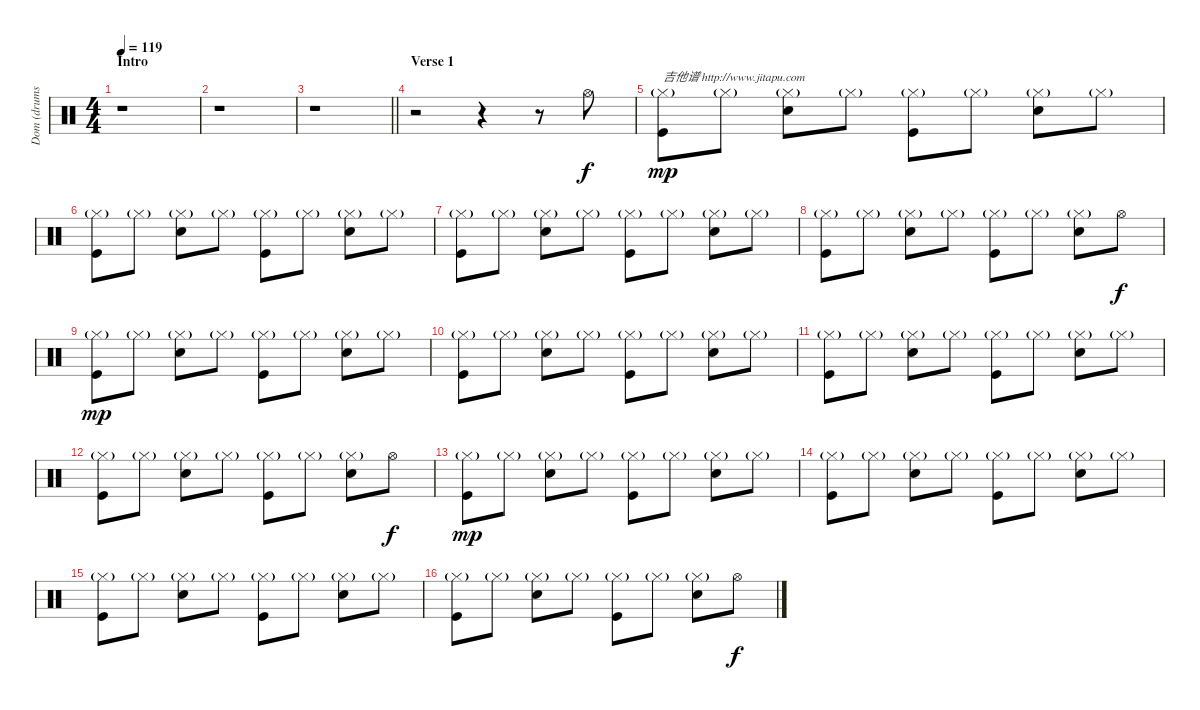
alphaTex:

\track ("Dom (drums)" "Dom (drums") {instrument percussion}
\staff {score}
\articulation defaults
\ts (4 4)
\section ("" "Intro")
\tempo 119
\clef neutral
\ks c
r.1{dy f} |
r.1 |
\barLineRight lightlight
r.1 |
\section ("" "Verse 1")
r.2 r.4 r.8 "Hi-Hat (open)".8 |
("Hi-Hat (closed)"{g} "Kick (hit)").8{txt "吉他谱 http://www.jitapu.com" dy mp} "Hi-Hat (closed)"{g}.8 ("Hi-Hat (closed)"{g} "Snare (hit) 2").8 "Hi-Hat (closed)"{g}.8 ("Hi-Hat (closed)"{g} "Kick (hit)").8 "Hi-Hat (closed)"{g}.8 ("Hi-Hat (closed)"{g} "Snare (hit) 2").8 "Hi-Hat (closed)"{g}.8 |
("Hi-Hat (closed)"{g} "Kick (hit)").8 "Hi-Hat (closed)"{g}.8 ("Hi-Hat (closed)"{g} "Snare (hit) 2").8 "Hi-Hat (closed)"{g}.8 ("Hi-Hat (closed)"{g} "Kick (hit)").8 "Hi-Hat (closed)"{g}.8 ("Hi-Hat (closed)"{g} "Snare (hit) 2").8 "Hi-Hat (closed)"{g}.8 |
("Hi-Hat (closed)"{g} "Kick (hit)").8 "Hi-Hat (closed)"{g}.8 ("Hi-Hat (closed)"{g} "Snare (hit) 2").8 "Hi-Hat (closed)"{g}.8 ("Hi-Hat (closed)"{g} "Kick (hit)").8 "Hi-Hat (closed)"{g}.8 ("Hi-Hat (closed)"{g} "Snare (hit) 2").8 "Hi-Hat (closed)"{g}.8 |
("Hi-Hat (closed)"{g} "Kick (hit)").8 "Hi-Hat (closed)"{g}.8 ("Hi-Hat (closed)"{g} "Snare (hit) 2").8 "Hi-Hat (closed)"{g}.8 ("Hi-Hat (closed)"{g} "Kick (hit)").8 "Hi-Hat (closed)"{g}.8 ("Hi-Hat (closed)"{g} "Snare (hit) 2").8 "Hi-Hat (open)".8{dy f} |
("Hi-Hat (closed)"{g} "Kick (hit)").8{dy mp} "Hi-Hat (closed)"{g}.8 ("Hi-Hat (closed)"{g} "Snare (hit) 2").8 "Hi-Hat (closed)"{g}.8 ("Hi-Hat (closed)"{g} "Kick (hit)").8 "Hi-Hat (closed)"{g}.8 ("Hi-Hat (closed)"{g} "Snare (hit) 2").8 "Hi-Hat (closed)"{g}.8 |
("Hi-Hat (closed)"{g} "Kick (hit)").8 "Hi-Hat (closed)"{g}.8 ("Hi-Hat (closed)"{g} "Snare (hit) 2").8 "Hi-Hat (closed)"{g}.8 ("Hi-Hat (closed)"{g} "Kick (hit)").8 "Hi-Hat (closed)"{g}.8 ("Hi-Hat (closed)"{g} "Snare (hit) 2").8 "Hi-Hat (closed)"{g}.8 |
("Hi-Hat (closed)"{g} "Kick (hit)").8 "Hi-Hat (closed)"{g}.8 ("Hi-Hat (closed)"{g} "Snare (hit) 2").8 "Hi-Hat (closed)"{g}.8 ("Hi-Hat (closed)"{g} "Kick (hit)").8 "Hi-Hat (closed)"{g}.8 ("Hi-Hat (closed)"{g} "Snare (hit) 2").8 "Hi-Hat (closed)"{g}.8 |
("Hi-Hat (closed)"{g} "Kick (hit)").8 "Hi-Hat (closed)"{g}.8 ("Hi-Hat (closed)"{g} "Snare (hit) 2").8 "Hi-Hat (closed)"{g}.8 ("Hi-Hat (closed)"{g} "Kick (hit)").8 "Hi-Hat (closed)"{g}.8 ("Hi-Hat (closed)"{g} "Snare (hit) 2").8 "Hi-Hat (open)".8{dy f} |
("Hi-Hat (closed)"{g} "Kick (hit)").8{dy mp} "Hi-Hat (closed)"{g}.8 ("Hi-Hat (closed)"{g} "Snare (hit) 2").8 "Hi-Hat (closed)"{g}.8 ("Hi-Hat (closed)"{g} "Kick (hit)").8 "Hi-Hat (closed)"{g}.8 ("Hi-Hat (closed)"{g} "Snare (hit) 2").8 "Hi-Hat (closed)"{g}.8 |
("Hi-Hat (closed)"{g} "Kick (hit)").8 "Hi-Hat (closed)"{g}.8 ("Hi-Hat (closed)"{g} "Snare (hit) 2").8 "Hi-Hat (closed)"{g}.8 ("Hi-Hat (closed)"{g} "Kick (hit)").8 "Hi-Hat (closed)"{g}.8 ("Hi-Hat (closed)"{g} "Snare (hit) 2").8 "Hi-Hat (closed)"{g}.8 |
("Hi-Hat (closed)"{g} "Kick (hit)").8 "Hi-Hat (closed)"{g}.8 ("Hi-Hat (closed)"{g} "Snare (hit) 2").8 "Hi-Hat (closed)"{g}.8 ("Hi-Hat (closed)"{g} "Kick (hit)").8 "Hi-Hat (closed)"{g}.8 ("Hi-Hat (closed)"{g} "Snare (hit) 2").8 "Hi-Hat (closed)"{g}.8 |
("Hi-Hat (closed)"{g} "Kick (hit)").8 "Hi-Hat (closed)"{g}.8 ("Hi-Hat (closed)"{g} "Snare (hit) 2").8 "Hi-Hat (closed)"{g}.8 ("Hi-Hat (closed)"{g} "Kick (hit)").8 "Hi-Hat (closed)"{g}.8 ("Hi-Hat (closed)"{g} "Snare (hit) 2").8 "Hi-Hat (open)".8{dy f}
